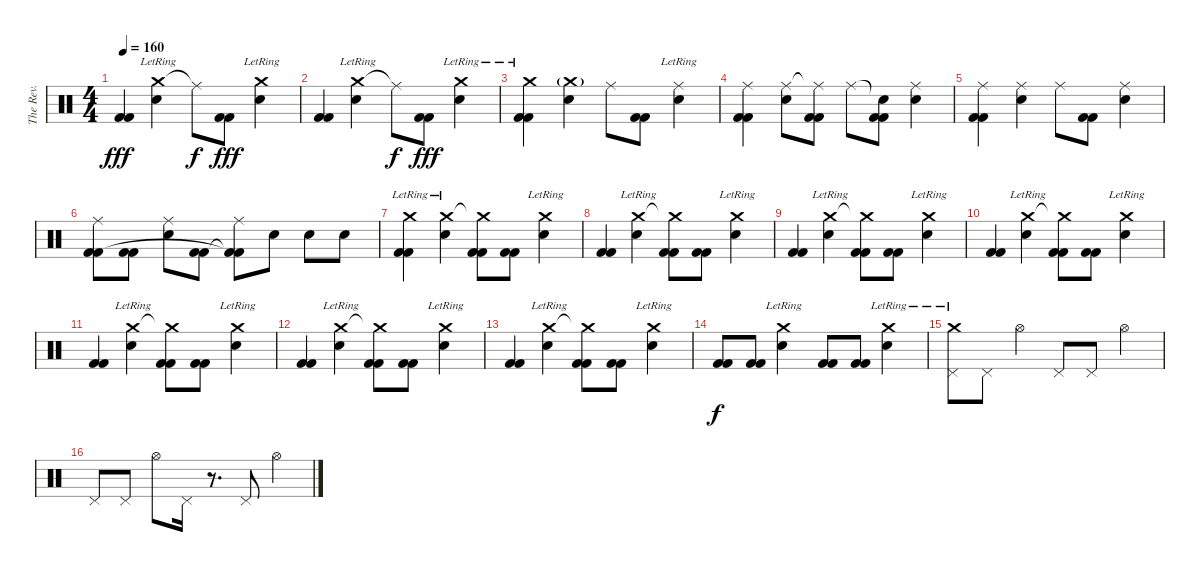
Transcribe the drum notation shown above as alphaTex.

\track ("The Rev." "The Rev.") {instrument percussion}
\staff {score}
\articulation defaults
\ts (4 4)
\tempo 160
\clef neutral
\ks c
("Kick (hit) 2" "Kick (hit) 2").4{dy fff} ("Crash medium (hit)"{lr} "Electric Snare (hit)").4 "Ride (middle)"{t}.8{dy f} ("Kick (hit) 2" "Kick (hit) 2").8{dy fff} ("Crash medium (hit)"{lr} "Electric Snare (hit)").4 |
("Kick (hit) 2" "Kick (hit) 2").4 ("Crash medium (hit)"{lr} "Electric Snare (hit)").4 "Ride (middle)"{t}.8{dy f} ("Kick (hit) 2" "Kick (hit) 2").8{dy fff} ("Crash medium (hit)"{lr} "Electric Snare (hit)").4 |
("Crash medium (hit)"{lr} "Kick (hit) 2" "Kick (hit) 2").4 ("Crash medium (hit)"{g} "Electric Snare (hit)").4 "Ride (middle)".8 ("Kick (hit) 2" "Kick (hit) 2").8 ("Ride (middle)"{lr} "Electric Snare (hit)").4 |
("Ride (middle)" "Kick (hit) 2" "Kick (hit) 2").4 ("Ride (middle)" "Electric Snare (hit)").8 ("Ride (middle)"{t} "Kick (hit) 2" "Kick (hit) 2").8 "Ride (middle)".8 ("Snare (hit)"{t} "Kick (hit) 2" "Kick (hit) 2").8 ("Ride (middle)" "Electric Snare (hit)").4 |
("Ride (middle)" "Kick (hit) 2" "Kick (hit) 2").4 ("Ride (middle)" "Electric Snare (hit)").4 "Ride (middle)".8 ("Kick (hit) 2" "Kick (hit) 2").8 ("Ride (middle)" "Electric Snare (hit)").4 |
("Ride (middle)" "Kick (hit) 2" "Kick (hit) 2").8 ("Kick (hit) 2" "Kick (hit) 2").8 ("Ride (middle)" "Electric Snare (hit)").8 ("Kick (hit) 2" "Kick (hit) 2").8 ("Ride (middle)" "Kick (hit) 2"{t} "Kick (hit) 2"{t}).8 "Electric Snare (hit)".8 "Electric Snare (hit)".8 "Electric Snare (hit)".8 |
("Crash medium (hit)"{lr} "Kick (hit) 2" "Kick (hit) 2").4 ("Crash medium (hit)"{lr} "Electric Snare (hit)").4 ("Crash medium (hit)"{t} "Kick (hit) 2" "Kick (hit) 2").8 ("Kick (hit) 2" "Kick (hit) 2").8 ("Crash medium (hit)"{lr} "Electric Snare (hit)").4 |
("Kick (hit) 2" "Kick (hit) 2").4 ("Crash medium (hit)"{lr} "Electric Snare (hit)").4 ("Crash medium (hit)"{t} "Kick (hit) 2" "Kick (hit) 2").8 ("Kick (hit) 2" "Kick (hit) 2").8 ("Crash medium (hit)"{lr} "Electric Snare (hit)").4 |
("Kick (hit) 2" "Kick (hit) 2").4 ("Crash medium (hit)"{lr} "Electric Snare (hit)").4 ("Crash medium (hit)"{t} "Kick (hit) 2" "Kick (hit) 2").8 ("Kick (hit) 2" "Kick (hit) 2").8 ("Crash medium (hit)"{lr} "Electric Snare (hit)").4 |
("Kick (hit) 2" "Kick (hit) 2").4 ("Crash medium (hit)"{lr} "Electric Snare (hit)").4 ("Crash medium (hit)"{t} "Kick (hit) 2" "Kick (hit) 2").8 ("Kick (hit) 2" "Kick (hit) 2").8 ("Crash medium (hit)"{lr} "Electric Snare (hit)").4 |
("Kick (hit) 2" "Kick (hit) 2").4 ("Crash medium (hit)"{lr} "Electric Snare (hit)").4 ("Crash medium (hit)"{t} "Kick (hit) 2" "Kick (hit) 2").8 ("Kick (hit) 2" "Kick (hit) 2").8 ("Crash medium (hit)"{lr} "Electric Snare (hit)").4 |
("Kick (hit) 2" "Kick (hit) 2").4 ("Crash medium (hit)"{lr} "Electric Snare (hit)").4 ("Crash medium (hit)"{t} "Kick (hit) 2" "Kick (hit) 2").8 ("Kick (hit) 2" "Kick (hit) 2").8 ("Crash medium (hit)"{lr} "Electric Snare (hit)").4 |
("Kick (hit) 2" "Kick (hit) 2").4 ("Crash medium (hit)"{lr} "Electric Snare (hit)").4 ("Crash medium (hit)"{t} "Kick (hit) 2" "Kick (hit) 2").8 ("Kick (hit) 2" "Kick (hit) 2").8 ("Crash medium (hit)"{lr} "Electric Snare (hit)").4 |
("Kick (hit) 2" "Kick (hit) 2").8{dy f} ("Kick (hit) 2" "Kick (hit) 2").8 ("Crash medium (hit)"{lr} "Electric Snare (hit)").4 ("Kick (hit) 2" "Kick (hit) 2").8 ("Kick (hit) 2" "Kick (hit) 2").8 ("Crash medium (hit)"{lr} "Electric Snare (hit)").4 |
("Crash medium (hit)"{lr} "Pedal Hi-Hat (hit)").8{volume 8} "Pedal Hi-Hat (hit)".8 "Hi-Hat (open)".4 "Pedal Hi-Hat (hit)".8 "Pedal Hi-Hat (hit)".8 "Hi-Hat (open)".4 |
"Pedal Hi-Hat (hit)".8 "Pedal Hi-Hat (hit)".8 "Hi-Hat (open)".8 "Pedal Hi-Hat (hit)".16 r.8{d} "Pedal Hi-Hat (hit)".8 "Hi-Hat (open)".4
